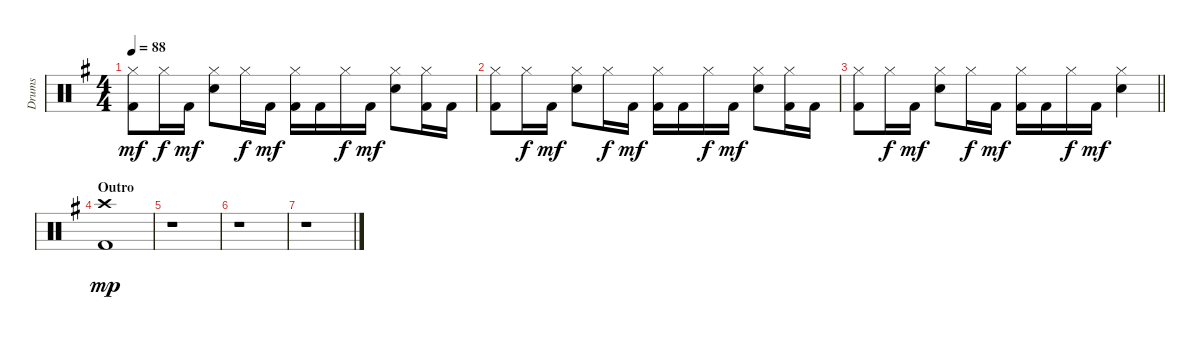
\track ("Drums" "Drums") {instrument percussion}
\staff {score}
\articulation defaults
\ts (4 4)
\tempo 88
\clef neutral
\ks eminor
("Kick (hit) 2" "Hi-Hat (closed)").8{dy mf} "Hi-Hat (closed)".16{dy f} "Kick (hit) 2".16{dy mf} ("Snare (hit) 2" "Hi-Hat (closed)").8 "Hi-Hat (closed)".16{dy f} "Kick (hit) 2".16{dy mf} ("Kick (hit) 2" "Hi-Hat (closed)").16 "Kick (hit) 2".16 "Hi-Hat (closed)".16{dy f} "Kick (hit) 2".16{dy mf} ("Snare (hit) 2" "Hi-Hat (closed)").8 ("Kick (hit) 2" "Hi-Hat (closed)").16 "Kick (hit) 2".16 |
("Kick (hit) 2" "Hi-Hat (closed)").8 "Hi-Hat (closed)".16{dy f} "Kick (hit) 2".16{dy mf} ("Snare (hit) 2" "Hi-Hat (closed)").8 "Hi-Hat (closed)".16{dy f} "Kick (hit) 2".16{dy mf} ("Kick (hit) 2" "Hi-Hat (closed)").16 "Kick (hit) 2".16 "Hi-Hat (closed)".16{dy f} "Kick (hit) 2".16{dy mf} ("Snare (hit) 2" "Hi-Hat (closed)").8 ("Kick (hit) 2" "Hi-Hat (closed)").16 "Kick (hit) 2".16 |
\barLineRight lightlight
("Kick (hit) 2" "Hi-Hat (closed)").8 "Hi-Hat (closed)".16{dy f} "Kick (hit) 2".16{dy mf} ("Snare (hit) 2" "Hi-Hat (closed)").8 "Hi-Hat (closed)".16{dy f} "Kick (hit) 2".16{dy mf} ("Kick (hit) 2" "Hi-Hat (closed)").16 "Kick (hit) 2".16 "Hi-Hat (closed)".16{dy f} "Kick (hit) 2".16{dy mf} ("Snare (hit) 2" "Hi-Hat (closed)").4 |
\section ("" "Outro")
("Kick (hit) 2" "Crash high (hit)").1{dy mp} |
r.1 |
r.1 |
r.1
